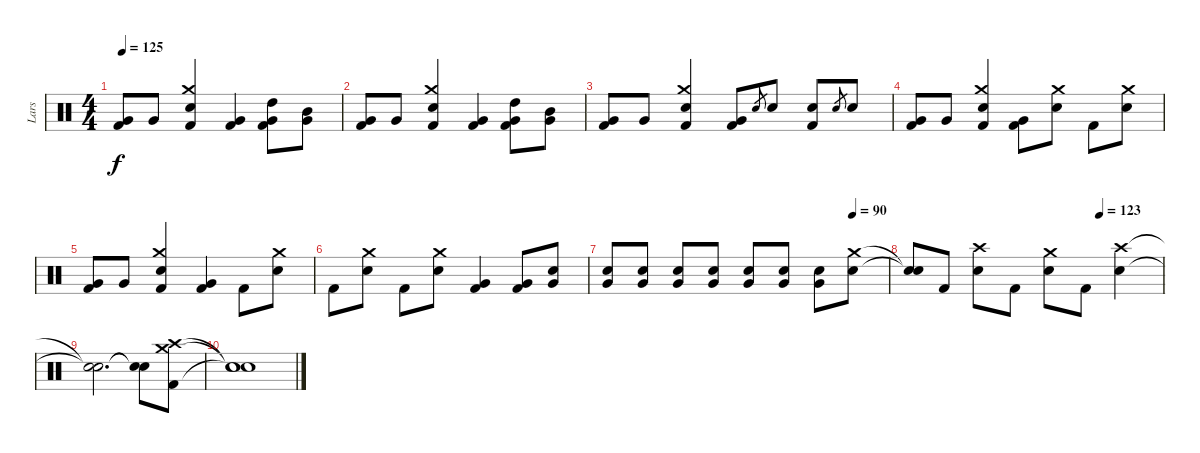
\track ("Lars" "Lars") {instrument percussion}
\staff {score}
\articulation defaults
\ts (4 4)
\tempo 125
\clef neutral
\ks c
("Very Low Tom (hit)" "Kick (hit) 2").8{dy f} "Very Low Tom (hit)".8 ("Crash medium (hit)" "Snare (hit) 2" "Kick (hit) 2").4 ("Very Low Tom (hit)" "Kick (hit) 2").4 ("High Tom (hit)" "Very Low Tom (hit)" "Kick (hit) 2").8 ("Mid Tom (hit)" "Very Low Tom (hit)").8 |
("Very Low Tom (hit)" "Kick (hit) 2").8 "Very Low Tom (hit)".8 ("Crash medium (hit)" "Snare (hit) 2" "Kick (hit) 2").4 ("Very Low Tom (hit)" "Kick (hit) 2").4 ("High Tom (hit)" "Very Low Tom (hit)" "Kick (hit) 2").8 ("Mid Tom (hit)" "Very Low Tom (hit)").8 |
("Very Low Tom (hit)" "Kick (hit) 2").8 "Very Low Tom (hit)".8 ("Crash medium (hit)" "Snare (hit) 2" "Kick (hit) 2").4 ("Very Low Tom (hit)" "Kick (hit) 2").8 "Snare (hit) 2".8{gr} "Snare (hit) 2".8 ("Snare (hit) 2" "Kick (hit) 2").8 "Snare (hit) 2".8{gr} "Snare (hit) 2".8 |
("Very Low Tom (hit)" "Kick (hit) 2").8 "Very Low Tom (hit)".8 ("Snare (hit) 2" "Crash medium (hit)" "Kick (hit) 2").4 ("Very Low Tom (hit)" "Kick (hit) 2").8 ("Crash medium (hit)" "Snare (hit) 2").8 "Kick (hit) 2".8 ("Crash medium (hit)" "Snare (hit) 2").8 |
("Very Low Tom (hit)" "Kick (hit) 2").8 "Very Low Tom (hit)".8 ("Crash medium (hit)" "Snare (hit) 2" "Kick (hit) 2").4 ("Very Low Tom (hit)" "Kick (hit) 2").4 "Kick (hit) 2".8 ("Crash medium (hit)" "Snare (hit) 2").8 |
"Kick (hit) 2".8 ("Snare (hit) 2" "Crash medium (hit)").8 "Kick (hit) 2".8 ("Snare (hit) 2" "Crash medium (hit)").8 ("Very Low Tom (hit)" "Kick (hit) 2").4 ("Very Low Tom (hit)" "Kick (hit) 2").8 ("Snare (hit) 2" "Very Low Tom (hit)").8 |
\tempo (90 0.875)
("Very Low Tom (hit)" "Snare (hit) 2").8 ("Very Low Tom (hit)" "Snare (hit) 2").8 ("Very Low Tom (hit)" "Snare (hit) 2").8 ("Very Low Tom (hit)" "Snare (hit) 2").8 ("Very Low Tom (hit)" "Snare (hit) 2").8 ("Very Low Tom (hit)" "Snare (hit) 2").8 ("Very Low Tom (hit)" "Snare (hit) 2").8 ("Crash medium (hit)" "Snare (hit) 2").8 |
\tempo (123 0.75)
("Snare (hit)"{t} "Snare (hit)"{t}).8 "Kick (hit) 2".8 ("Crash high (hit)" "Snare (hit) 2").8 "Kick (hit) 2".8 ("Crash medium (hit)" "Snare (hit) 2").8 "Kick (hit) 2".8 ("Crash high (hit)" "Snare (hit) 2").4 |
("Snare (hit)"{t} "Snare (hit)"{t}).2{d} ("Snare (hit)"{t} "Snare (hit)"{t}).8 ("Crash high (hit)" "Crash medium (hit)" "Kick (hit) 2").8 |
("Snare (hit)"{t} "Snare (hit)"{t} "Snare (hit)"{t}).1
